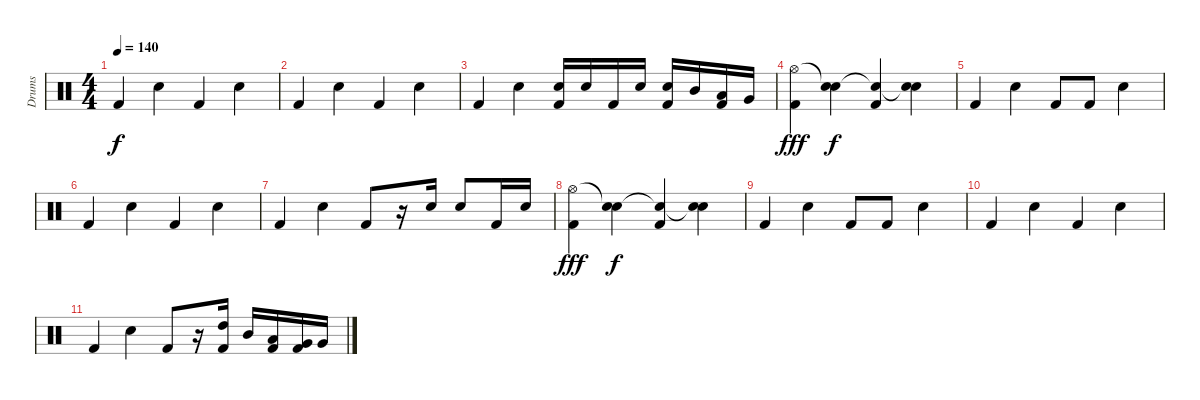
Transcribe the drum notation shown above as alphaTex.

\track ("Drums" "Drums") {instrument percussion}
\staff {score}
\articulation defaults
\ts (4 4)
\tempo 140
\clef neutral
\ks c "Kick (hit) 2".4{dy f} "Snare (hit) 2".4 "Kick (hit) 2".4 "Snare (hit) 2".4
|
"Kick (hit) 2".4 "Snare (hit) 2".4 "Kick (hit) 2".4 "Snare (hit) 2".4 |
"Kick (hit) 2".4 "Snare (hit) 2".4 ("Snare (hit) 2" "Kick (hit) 2").16 "Snare (hit) 2".16 "Kick (hit) 2".16 "Snare (hit) 2".16 ("Snare (hit) 2" "Kick (hit) 2").16 "Mid Tom (hit)".16 ("Low Tom (hit)" "Kick (hit) 2").16 "Very Low Tom (hit)".16 |
("Hi-Hat (open)" "Kick (hit) 2").4{dy fff} ("Snare (hit)"{t} "Snare (hit) 2").4{dy f} ("Snare (hit)"{t} "Kick (hit) 2").4 ("Snare (hit)"{t} "Snare (hit) 2").4 |
"Kick (hit) 2".4 "Snare (hit) 2".4 "Kick (hit) 2".8 "Kick (hit) 2".8 "Snare (hit) 2".4 |
"Kick (hit) 2".4 "Snare (hit) 2".4 "Kick (hit) 2".4 "Snare (hit) 2".4 |
"Kick (hit) 2".4 "Snare (hit) 2".4 "Kick (hit) 2".8 r.16 "Snare (hit) 2".16 "Snare (hit) 2".8 "Kick (hit) 2".16 "Snare (hit) 2".16 |
("Hi-Hat (open)" "Kick (hit) 2").4{dy fff} ("Snare (hit)"{t} "Snare (hit) 2").4{dy f} ("Snare (hit)"{t} "Kick (hit) 2").4 ("Snare (hit)"{t} "Snare (hit) 2").4 |
"Kick (hit) 2".4 "Snare (hit) 2".4 "Kick (hit) 2".8 "Kick (hit) 2".8 "Snare (hit) 2".4 |
"Kick (hit) 2".4{volume 2} "Snare (hit) 2".4 "Kick (hit) 2".4 "Snare (hit) 2".4 |
"Kick (hit) 2".4 "Snare (hit) 2".4 "Kick (hit) 2".8 r.16 ("High Tom (hit)" "Kick (hit) 2").16 "Mid Tom (hit)".16 ("Low Tom (hit)" "Kick (hit) 2").16 ("Very Low Tom (hit)" "Kick (hit) 2").16 "Very Low Tom (hit)".16
